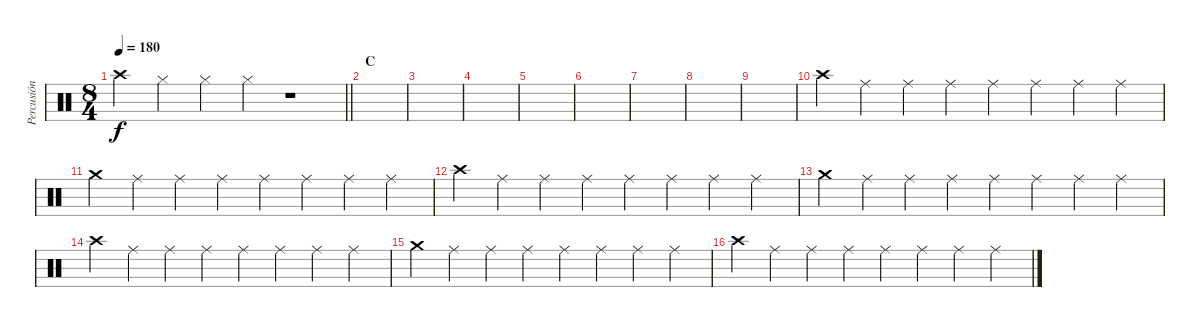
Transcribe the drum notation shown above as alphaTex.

\track ("Percusión" "Percusión") {instrument percussion}
\staff {score}
\articulation defaults
\ts (8 4)
\tempo 180
\clef neutral
\barLineRight lightlight
\ks c "Crash high (hit)".4{dy f} "Hi-Hat (closed)".4 "Hi-Hat (closed)".4 "Hi-Hat (closed)".4
r.1 |
\section ("" "C")
|
|
|
|
|
|
|
|
"Crash high (hit)".4 "Ride (middle)".4 "Ride (middle)".4 "Ride (middle)".4 "Ride (middle)".4 "Ride (middle)".4 "Ride (middle)".4 "Ride (middle)".4 |
"Crash medium (hit)".4 "Ride (middle)".4 "Ride (middle)".4 "Ride (middle)".4 "Ride (middle)".4 "Ride (middle)".4 "Ride (middle)".4 "Ride (middle)".4 |
"Crash high (hit)".4 "Ride (middle)".4 "Ride (middle)".4 "Ride (middle)".4 "Ride (middle)".4 "Ride (middle)".4 "Ride (middle)".4 "Ride (middle)".4 |
"Crash medium (hit)".4 "Ride (middle)".4 "Ride (middle)".4 "Ride (middle)".4 "Ride (middle)".4 "Ride (middle)".4 "Ride (middle)".4 "Ride (middle)".4 |
"Crash high (hit)".4 "Ride (middle)".4 "Ride (middle)".4 "Ride (middle)".4 "Ride (middle)".4 "Ride (middle)".4 "Ride (middle)".4 "Ride (middle)".4 |
"Crash medium (hit)".4 "Ride (middle)".4 "Ride (middle)".4 "Ride (middle)".4 "Ride (middle)".4 "Ride (middle)".4 "Ride (middle)".4 "Ride (middle)".4 |
"Crash high (hit)".4 "Ride (middle)".4 "Ride (middle)".4 "Ride (middle)".4 "Ride (middle)".4 "Ride (middle)".4 "Ride (middle)".4 "Ride (middle)".4
